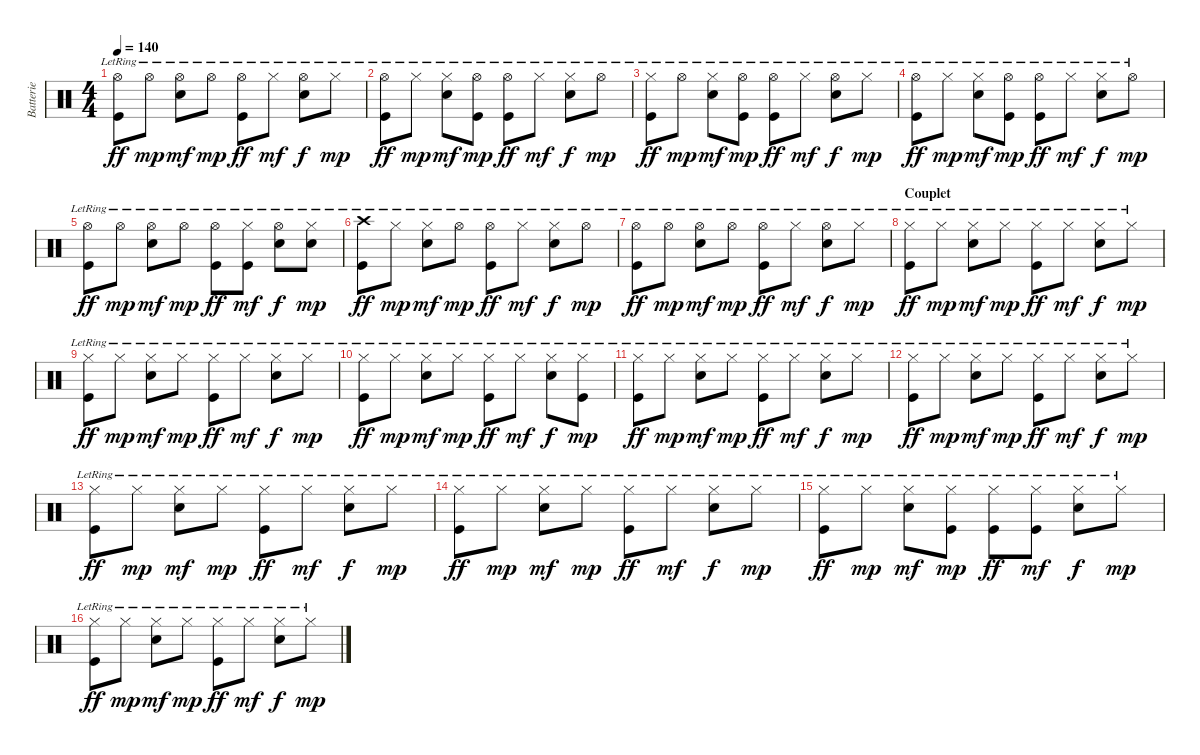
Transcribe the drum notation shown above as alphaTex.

\track ("Batterie" "Batterie") {instrument percussion}
\staff {score}
\articulation defaults
\ts (4 4)
\tempo 140
\clef neutral
\ks c
("Hi-Hat (open)"{lr} "Kick (hit)"{lr}).8{dy ff} "Hi-Hat (open)"{lr}.8{dy mp} ("Hi-Hat (open)"{lr} "Snare (hit) 2"{lr}).8{dy mf} "Hi-Hat (open)"{lr}.8{dy mp} ("Hi-Hat (open)"{lr} "Kick (hit)"{lr}).8{dy ff} "Hi-Hat (closed)"{lr}.8{dy mf} ("Hi-Hat (open)"{lr} "Snare (hit) 2"{lr}).8{dy f} "Hi-Hat (closed)"{lr}.8{dy mp} |
("Hi-Hat (open)" "Kick (hit)"{lr}).8{dy ff} "Hi-Hat (closed)"{lr}.8{dy mp} ("Hi-Hat (closed)"{lr} "Snare (hit) 2"{lr}).8{dy mf} ("Hi-Hat (open)"{lr} "Kick (hit)").8{dy mp} ("Hi-Hat (open)"{lr} "Kick (hit)"{lr}).8{dy ff} "Hi-Hat (closed)"{lr}.8{dy mf} ("Hi-Hat (closed)"{lr} "Snare (hit) 2"{lr}).8{dy f} "Hi-Hat (open)"{lr}.8{dy mp} |
("Hi-Hat (closed)"{lr} "Kick (hit)"{lr}).8{dy ff} "Hi-Hat (open)"{lr}.8{dy mp} ("Hi-Hat (closed)"{lr} "Snare (hit) 2"{lr}).8{dy mf} ("Hi-Hat (open)"{lr} "Kick (hit)").8{dy mp} ("Hi-Hat (open)"{lr} "Kick (hit)"{lr}).8{dy ff} "Hi-Hat (closed)"{lr}.8{dy mf} ("Hi-Hat (open)"{lr} "Snare (hit) 2"{lr}).8{dy f} "Hi-Hat (closed)"{lr}.8{dy mp} |
("Hi-Hat (open)" "Kick (hit)"{lr}).8{dy ff} "Hi-Hat (closed)"{lr}.8{dy mp} ("Hi-Hat (closed)"{lr} "Snare (hit) 2"{lr}).8{dy mf} ("Hi-Hat (open)"{lr} "Kick (hit)").8{dy mp} ("Hi-Hat (open)"{lr} "Kick (hit)"{lr}).8{dy ff} "Hi-Hat (closed)"{lr}.8{dy mf} ("Hi-Hat (closed)"{lr} "Snare (hit) 2"{lr}).8{dy f} "Hi-Hat (open)"{lr}.8{dy mp} |
("Hi-Hat (open)"{lr} "Kick (hit)"{lr}).8{dy ff} "Hi-Hat (open)"{lr}.8{dy mp} ("Hi-Hat (open)"{lr} "Snare (hit) 2"{lr}).8{dy mf} "Hi-Hat (open)"{lr}.8{dy mp} ("Hi-Hat (open)"{lr} "Kick (hit)"{lr}).8{dy ff} ("Hi-Hat (closed)"{lr} "Kick (hit)").8{dy mf} ("Hi-Hat (open)"{lr} "Snare (hit) 2"{lr}).8{dy f} ("Hi-Hat (closed)"{lr} "Snare (hit) 2").8{dy mp} |
("Crash high (hit)"{lr} "Kick (hit)"{lr}).8{dy ff} "Hi-Hat (closed)"{lr}.8{dy mp} ("Hi-Hat (closed)"{lr} "Snare (hit) 2"{lr}).8{dy mf} "Hi-Hat (open)"{lr}.8{dy mp} ("Hi-Hat (open)"{lr} "Kick (hit)"{lr}).8{dy ff} "Hi-Hat (closed)"{lr}.8{dy mf} ("Hi-Hat (closed)"{lr} "Snare (hit) 2"{lr}).8{dy f} "Hi-Hat (open)"{lr}.8{dy mp} |
("Hi-Hat (open)"{lr} "Kick (hit)"{lr}).8{dy ff} "Hi-Hat (open)"{lr}.8{dy mp} ("Hi-Hat (open)"{lr} "Snare (hit) 2"{lr}).8{dy mf} "Hi-Hat (open)"{lr}.8{dy mp} ("Hi-Hat (open)"{lr} "Kick (hit)"{lr}).8{dy ff} "Hi-Hat (closed)"{lr}.8{dy mf} ("Hi-Hat (open)"{lr} "Snare (hit) 2"{lr}).8{dy f} "Hi-Hat (closed)"{lr}.8{dy mp} |
\section ("" "Couplet")
("Hi-Hat (closed)"{lr} "Kick (hit)"{lr}).8{dy ff} "Hi-Hat (closed)"{lr}.8{dy mp} ("Hi-Hat (closed)"{lr} "Snare (hit) 2"{lr}).8{dy mf} "Hi-Hat (closed)"{lr}.8{dy mp} ("Hi-Hat (closed)"{lr} "Kick (hit)"{lr}).8{dy ff} "Hi-Hat (closed)"{lr}.8{dy mf} ("Hi-Hat (closed)"{lr} "Snare (hit) 2"{lr}).8{dy f} "Hi-Hat (closed)"{lr}.8{dy mp} |
("Hi-Hat (closed)"{lr} "Kick (hit)"{lr}).8{dy ff} "Hi-Hat (closed)"{lr}.8{dy mp} ("Hi-Hat (closed)"{lr} "Snare (hit) 2"{lr}).8{dy mf} "Hi-Hat (closed)"{lr}.8{dy mp} ("Hi-Hat (closed)"{lr} "Kick (hit)"{lr}).8{dy ff} "Hi-Hat (closed)"{lr}.8{dy mf} ("Hi-Hat (closed)"{lr} "Snare (hit) 2"{lr}).8{dy f} "Hi-Hat (closed)"{lr}.8{dy mp} |
("Hi-Hat (closed)"{lr} "Kick (hit)"{lr}).8{dy ff} "Hi-Hat (closed)"{lr}.8{dy mp} ("Hi-Hat (closed)"{lr} "Snare (hit) 2"{lr}).8{dy mf} "Hi-Hat (closed)"{lr}.8{dy mp} ("Hi-Hat (closed)"{lr} "Kick (hit)"{lr}).8{dy ff} "Hi-Hat (closed)"{lr}.8{dy mf} ("Hi-Hat (closed)"{lr} "Snare (hit) 2"{lr}).8{dy f} ("Hi-Hat (closed)"{lr} "Kick (hit)").8{dy mp} |
("Hi-Hat (closed)"{lr} "Kick (hit)"{lr}).8{dy ff} "Hi-Hat (closed)"{lr}.8{dy mp} ("Hi-Hat (closed)"{lr} "Snare (hit) 2"{lr}).8{dy mf} "Hi-Hat (closed)"{lr}.8{dy mp} ("Hi-Hat (closed)"{lr} "Kick (hit)"{lr}).8{dy ff} "Hi-Hat (closed)"{lr}.8{dy mf} ("Hi-Hat (closed)"{lr} "Snare (hit) 2"{lr}).8{dy f} "Hi-Hat (closed)"{lr}.8{dy mp} |
("Hi-Hat (closed)"{lr} "Kick (hit)"{lr}).8{dy ff} "Hi-Hat (closed)"{lr}.8{dy mp} ("Hi-Hat (closed)"{lr} "Snare (hit) 2"{lr}).8{dy mf} "Hi-Hat (closed)"{lr}.8{dy mp} ("Hi-Hat (closed)"{lr} "Kick (hit)"{lr}).8{dy ff} "Hi-Hat (closed)"{lr}.8{dy mf} ("Hi-Hat (closed)"{lr} "Snare (hit) 2"{lr}).8{dy f} "Hi-Hat (closed)"{lr}.8{dy mp} |
("Hi-Hat (closed)"{lr} "Kick (hit)"{lr}).8{dy ff} "Hi-Hat (closed)"{lr}.8{dy mp} ("Hi-Hat (closed)"{lr} "Snare (hit) 2"{lr}).8{dy mf} "Hi-Hat (closed)"{lr}.8{dy mp} ("Hi-Hat (closed)"{lr} "Kick (hit)"{lr}).8{dy ff} "Hi-Hat (closed)"{lr}.8{dy mf} ("Hi-Hat (closed)"{lr} "Snare (hit) 2"{lr}).8{dy f} "Hi-Hat (closed)"{lr}.8{dy mp} |
("Hi-Hat (closed)"{lr} "Kick (hit)"{lr}).8{dy ff} "Hi-Hat (closed)"{lr}.8{dy mp} ("Hi-Hat (closed)"{lr} "Snare (hit) 2"{lr}).8{dy mf} "Hi-Hat (closed)"{lr}.8{dy mp} ("Hi-Hat (closed)"{lr} "Kick (hit)"{lr}).8{dy ff} "Hi-Hat (closed)"{lr}.8{dy mf} ("Hi-Hat (closed)"{lr} "Snare (hit) 2"{lr}).8{dy f} "Hi-Hat (closed)"{lr}.8{dy mp} |
("Hi-Hat (closed)"{lr} "Kick (hit)"{lr}).8{dy ff} "Hi-Hat (closed)"{lr}.8{dy mp} ("Hi-Hat (closed)"{lr} "Snare (hit) 2"{lr}).8{dy mf} ("Hi-Hat (closed)"{lr} "Kick (hit)").8{dy mp} ("Hi-Hat (closed)"{lr} "Kick (hit)"{lr}).8{dy ff} ("Hi-Hat (closed)"{lr} "Kick (hit)").8{dy mf} ("Hi-Hat (closed)"{lr} "Snare (hit) 2"{lr}).8{dy f} "Hi-Hat (closed)"{lr}.8{dy mp} |
("Hi-Hat (closed)"{lr} "Kick (hit)"{lr}).8{dy ff} "Hi-Hat (closed)"{lr}.8{dy mp} ("Hi-Hat (closed)"{lr} "Snare (hit) 2"{lr}).8{dy mf} "Hi-Hat (closed)"{lr}.8{dy mp} ("Hi-Hat (closed)"{lr} "Kick (hit)"{lr}).8{dy ff} "Hi-Hat (closed)"{lr}.8{dy mf} ("Hi-Hat (closed)"{lr} "Snare (hit) 2"{lr}).8{dy f} "Hi-Hat (closed)"{lr}.8{dy mp}
